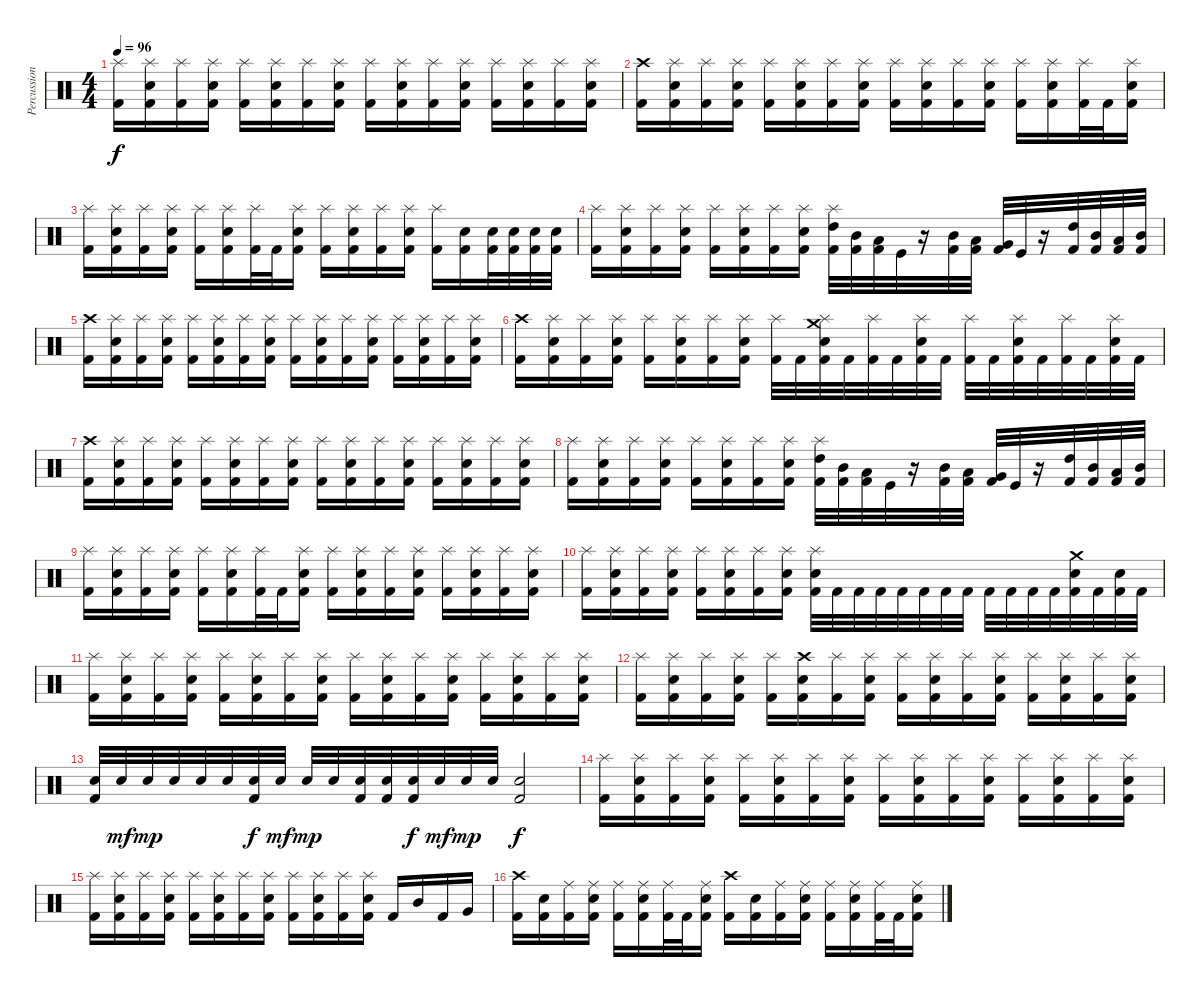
\track ("Percussion" "Percussion") {instrument percussion}
\staff {score}
\articulation defaults
\ts (4 4)
\tempo 96
\clef neutral
\ks c
("Splash (hit)" "Kick (hit) 2").16{dy f} ("Splash (hit)" "Snare (hit) 2" "Kick (hit) 2").16 ("Splash (hit)" "Kick (hit) 2").16 ("Splash (hit)" "Snare (hit) 2" "Kick (hit) 2").16 ("Splash (hit)" "Kick (hit) 2").16 ("Splash (hit)" "Snare (hit) 2" "Kick (hit) 2").16 ("Splash (hit)" "Kick (hit) 2").16 ("Splash (hit)" "Snare (hit) 2" "Kick (hit) 2").16 ("Splash (hit)" "Kick (hit) 2").16 ("Splash (hit)" "Snare (hit) 2" "Kick (hit) 2").16 ("Splash (hit)" "Kick (hit) 2").16 ("Splash (hit)" "Snare (hit) 2" "Kick (hit) 2").16 ("Splash (hit)" "Kick (hit) 2").16 ("Splash (hit)" "Snare (hit) 2" "Kick (hit) 2").16 ("Splash (hit)" "Kick (hit) 2").16 ("Splash (hit)" "Snare (hit) 2" "Kick (hit) 2").16 |
("Crash high (hit)" "Kick (hit) 2").16 ("Splash (hit)" "Snare (hit) 2" "Kick (hit) 2").16 ("Splash (hit)" "Kick (hit) 2").16 ("Splash (hit)" "Snare (hit) 2" "Kick (hit) 2").16 ("Splash (hit)" "Kick (hit) 2").16 ("Splash (hit)" "Snare (hit) 2" "Kick (hit) 2").16 ("Splash (hit)" "Kick (hit) 2").16 ("Splash (hit)" "Snare (hit) 2" "Kick (hit) 2").16 ("Splash (hit)" "Kick (hit) 2").16 ("Splash (hit)" "Snare (hit) 2" "Kick (hit) 2").16 ("Splash (hit)" "Kick (hit) 2").16 ("Splash (hit)" "Snare (hit) 2" "Kick (hit) 2").16 ("Splash (hit)" "Kick (hit) 2").16 ("Splash (hit)" "Snare (hit) 2" "Kick (hit) 2").16 ("Splash (hit)" "Kick (hit) 2").32 "Kick (hit) 2".32 ("Splash (hit)" "Snare (hit) 2" "Kick (hit) 2").16 |
("Splash (hit)" "Kick (hit) 2").16 ("Splash (hit)" "Snare (hit) 2" "Kick (hit) 2").16 ("Splash (hit)" "Kick (hit) 2").16 ("Splash (hit)" "Snare (hit) 2" "Kick (hit) 2").16 ("Splash (hit)" "Kick (hit) 2").16 ("Splash (hit)" "Snare (hit) 2" "Kick (hit) 2").16 ("Splash (hit)" "Kick (hit) 2").32 "Kick (hit) 2".32 ("Splash (hit)" "Snare (hit) 2" "Kick (hit) 2").16 ("Splash (hit)" "Kick (hit) 2").16 ("Splash (hit)" "Snare (hit) 2" "Kick (hit) 2").16 ("Splash (hit)" "Kick (hit) 2").16 ("Splash (hit)" "Snare (hit) 2" "Kick (hit) 2").16 ("Splash (hit)" "Kick (hit) 2").16 ("Snare (hit) 2" "Kick (hit) 2").16 ("Snare (hit) 2" "Kick (hit) 2").32 ("Snare (hit) 2" "Kick (hit) 2").32 ("Snare (hit) 2" "Kick (hit) 2").32 ("Snare (hit) 2" "Kick (hit) 2").32 |
("Splash (hit)" "Kick (hit) 2").16 ("Splash (hit)" "Snare (hit) 2" "Kick (hit) 2").16 ("Splash (hit)" "Kick (hit) 2").16 ("Splash (hit)" "Snare (hit) 2" "Kick (hit) 2").16 ("Splash (hit)" "Kick (hit) 2").16 ("Splash (hit)" "Snare (hit) 2" "Kick (hit) 2").16 ("Splash (hit)" "Kick (hit) 2").16 ("Splash (hit)" "Snare (hit) 2" "Kick (hit) 2").16 ("Splash (hit)" "High Tom (hit)" "Kick (hit) 2").32 ("Mid Tom (hit)" "Kick (hit) 2").32 ("Low Tom (hit)" "Kick (hit) 2").32 "Kick (hit)".32 r.16 ("Mid Tom (hit)" "Kick (hit) 2").32 ("Low Tom (hit)" "Kick (hit) 2").32 ("Very Low Tom (hit)" "Kick (hit) 2").32 "Kick (hit)".32 r.16 ("High Tom (hit)" "Kick (hit) 2").32 ("Mid Tom (hit)" "Kick (hit) 2").32 ("Low Tom (hit)" "Kick (hit) 2").32 ("Mid Tom (hit)" "Kick (hit) 2").32 |
("Crash high (hit)" "Kick (hit) 2").16 ("Splash (hit)" "Snare (hit) 2" "Kick (hit) 2").16 ("Splash (hit)" "Kick (hit) 2").16 ("Splash (hit)" "Snare (hit) 2" "Kick (hit) 2").16 ("Splash (hit)" "Kick (hit) 2").16 ("Splash (hit)" "Snare (hit) 2" "Kick (hit) 2").16 ("Splash (hit)" "Kick (hit) 2").16 ("Splash (hit)" "Snare (hit) 2" "Kick (hit) 2").16 ("Splash (hit)" "Kick (hit) 2").16 ("Splash (hit)" "Snare (hit) 2" "Kick (hit) 2").16 ("Splash (hit)" "Kick (hit) 2").16 ("Splash (hit)" "Snare (hit) 2" "Kick (hit) 2").16 ("Splash (hit)" "Kick (hit) 2").16 ("Splash (hit)" "Snare (hit) 2" "Kick (hit) 2").16 ("Splash (hit)" "Kick (hit) 2").16 ("Splash (hit)" "Snare (hit) 2" "Kick (hit) 2").16 |
("Crash high (hit)" "Kick (hit) 2").16 ("Splash (hit)" "Snare (hit) 2" "Kick (hit) 2").16 ("Splash (hit)" "Kick (hit) 2").16 ("Splash (hit)" "Snare (hit) 2" "Kick (hit) 2").16 ("Splash (hit)" "Kick (hit) 2").16 ("Splash (hit)" "Snare (hit) 2" "Kick (hit) 2").16 ("Splash (hit)" "Kick (hit) 2").16 ("Splash (hit)" "Snare (hit) 2" "Kick (hit) 2").16 ("Splash (hit)" "Kick (hit) 2").32 "Kick (hit) 2".32 ("Crash medium (hit)" "Splash (hit)" "Snare (hit) 2" "Kick (hit) 2").32 "Kick (hit) 2".32 ("Splash (hit)" "Kick (hit) 2").32 "Kick (hit) 2".32 ("Splash (hit)" "Snare (hit) 2" "Kick (hit) 2").32 "Kick (hit) 2".32 ("Splash (hit)" "Kick (hit) 2").32 "Kick (hit) 2".32 ("Splash (hit)" "Snare (hit) 2" "Kick (hit) 2").32 "Kick (hit) 2".32 ("Splash (hit)" "Kick (hit) 2").32 "Kick (hit) 2".32 ("Splash (hit)" "Snare (hit) 2" "Kick (hit) 2").32 "Kick (hit) 2".32 |
("Crash high (hit)" "Kick (hit) 2").16 ("Splash (hit)" "Snare (hit) 2" "Kick (hit) 2").16 ("Splash (hit)" "Kick (hit) 2").16 ("Splash (hit)" "Snare (hit) 2" "Kick (hit) 2").16 ("Splash (hit)" "Kick (hit) 2").16 ("Splash (hit)" "Snare (hit) 2" "Kick (hit) 2").16 ("Splash (hit)" "Kick (hit) 2").16 ("Splash (hit)" "Snare (hit) 2" "Kick (hit) 2").16 ("Splash (hit)" "Kick (hit) 2").16 ("Splash (hit)" "Snare (hit) 2" "Kick (hit) 2").16 ("Splash (hit)" "Kick (hit) 2").16 ("Splash (hit)" "Snare (hit) 2" "Kick (hit) 2").16 ("Splash (hit)" "Kick (hit) 2").16 ("Splash (hit)" "Snare (hit) 2" "Kick (hit) 2").16 ("Splash (hit)" "Kick (hit) 2").16 ("Splash (hit)" "Snare (hit) 2" "Kick (hit) 2").16 |
("Splash (hit)" "Kick (hit) 2").16 ("Splash (hit)" "Snare (hit) 2" "Kick (hit) 2").16 ("Splash (hit)" "Kick (hit) 2").16 ("Splash (hit)" "Snare (hit) 2" "Kick (hit) 2").16 ("Splash (hit)" "Kick (hit) 2").16 ("Splash (hit)" "Snare (hit) 2" "Kick (hit) 2").16 ("Splash (hit)" "Kick (hit) 2").16 ("Splash (hit)" "Snare (hit) 2" "Kick (hit) 2").16 ("Splash (hit)" "High Tom (hit)" "Kick (hit) 2").32 ("Mid Tom (hit)" "Kick (hit) 2").32 ("Low Tom (hit)" "Kick (hit) 2").32 "Kick (hit)".32 r.16 ("Mid Tom (hit)" "Kick (hit) 2").32 ("Low Tom (hit)" "Kick (hit) 2").32 ("Very Low Tom (hit)" "Kick (hit) 2").32 "Kick (hit)".32 r.16 ("High Tom (hit)" "Kick (hit) 2").32 ("Mid Tom (hit)" "Kick (hit) 2").32 ("Low Tom (hit)" "Kick (hit) 2").32 ("Mid Tom (hit)" "Kick (hit) 2").32 |
("Splash (hit)" "Kick (hit) 2").16 ("Splash (hit)" "Snare (hit) 2" "Kick (hit) 2").16 ("Splash (hit)" "Kick (hit) 2").16 ("Splash (hit)" "Snare (hit) 2" "Kick (hit) 2").16 ("Splash (hit)" "Kick (hit) 2").16 ("Splash (hit)" "Snare (hit) 2" "Kick (hit) 2").16 ("Splash (hit)" "Kick (hit) 2").32 "Kick (hit) 2".32 ("Splash (hit)" "Snare (hit) 2" "Kick (hit) 2").16 ("Splash (hit)" "Kick (hit) 2").16 ("Splash (hit)" "Snare (hit) 2" "Kick (hit) 2").16 ("Splash (hit)" "Kick (hit) 2").16 ("Splash (hit)" "Snare (hit) 2" "Kick (hit) 2").16 ("Splash (hit)" "Kick (hit) 2").16 ("Splash (hit)" "Snare (hit) 2" "Kick (hit) 2").16 ("Splash (hit)" "Kick (hit) 2").16 ("Splash (hit)" "Snare (hit) 2" "Kick (hit) 2").16 |
("Splash (hit)" "Kick (hit) 2").16 ("Splash (hit)" "Snare (hit) 2" "Kick (hit) 2").16 ("Splash (hit)" "Kick (hit) 2").16 ("Splash (hit)" "Snare (hit) 2" "Kick (hit) 2").16 ("Splash (hit)" "Kick (hit) 2").16 ("Splash (hit)" "Snare (hit) 2" "Kick (hit) 2").16 ("Splash (hit)" "Kick (hit) 2").16 ("Splash (hit)" "Snare (hit) 2" "Kick (hit) 2").16 ("Splash (hit)" "Snare (hit) 2" "Kick (hit) 2").32 "Kick (hit) 2".32 "Kick (hit) 2".32 "Kick (hit) 2".32 "Kick (hit) 2".32 "Kick (hit) 2".32 "Kick (hit) 2".32 "Kick (hit) 2".32 "Kick (hit) 2".32 "Kick (hit) 2".32 "Kick (hit) 2".32 "Kick (hit) 2".32 ("Crash medium (hit)" "Snare (hit) 2" "Kick (hit) 2").32 "Kick (hit) 2".32 ("Snare (hit) 2" "Kick (hit) 2").32 "Kick (hit) 2".32 |
("Splash (hit)" "Kick (hit) 2").16 ("Splash (hit)" "Snare (hit) 2" "Kick (hit) 2").16 ("Splash (hit)" "Kick (hit) 2").16 ("Splash (hit)" "Snare (hit) 2" "Kick (hit) 2").16 ("Splash (hit)" "Kick (hit) 2").16 ("Splash (hit)" "Snare (hit) 2" "Kick (hit) 2").16 ("Splash (hit)" "Kick (hit) 2").16 ("Splash (hit)" "Snare (hit) 2" "Kick (hit) 2").16 ("Splash (hit)" "Kick (hit) 2").16 ("Splash (hit)" "Snare (hit) 2" "Kick (hit) 2").16 ("Splash (hit)" "Kick (hit) 2").16 ("Splash (hit)" "Snare (hit) 2" "Kick (hit) 2").16 ("Splash (hit)" "Kick (hit) 2").16 ("Splash (hit)" "Snare (hit) 2" "Kick (hit) 2").16 ("Splash (hit)" "Kick (hit) 2").16 ("Splash (hit)" "Snare (hit) 2" "Kick (hit) 2").16 |
("Splash (hit)" "Kick (hit) 2").16 ("Splash (hit)" "Snare (hit) 2" "Kick (hit) 2").16 ("Splash (hit)" "Kick (hit) 2").16 ("Splash (hit)" "Snare (hit) 2" "Kick (hit) 2").16 ("Splash (hit)" "Kick (hit) 2").16 ("Crash high (hit)" "Snare (hit) 2" "Kick (hit) 2").16 ("Splash (hit)" "Kick (hit) 2").16 ("Splash (hit)" "Snare (hit) 2" "Kick (hit) 2").16 ("Splash (hit)" "Kick (hit) 2").16 ("Splash (hit)" "Snare (hit) 2" "Kick (hit) 2").16 ("Splash (hit)" "Kick (hit) 2").16 ("Splash (hit)" "Snare (hit) 2" "Kick (hit) 2").16 ("Splash (hit)" "Kick (hit) 2").16 ("Splash (hit)" "Snare (hit) 2" "Kick (hit) 2").16 ("Splash (hit)" "Kick (hit) 2").16 ("Splash (hit)" "Snare (hit) 2" "Kick (hit) 2").16 |
("Snare (hit) 2" "Kick (hit) 2").32 "Snare (hit) 2".32{dy mf} "Snare (hit) 2".32{dy mp} "Snare (hit) 2".32 "Snare (hit) 2".32 "Snare (hit) 2".32 ("Snare (hit) 2" "Kick (hit) 2").32{dy f} "Snare (hit) 2".32{dy mf} "Snare (hit) 2".32{dy mp} "Snare (hit) 2".32 ("Snare (hit) 2" "Kick (hit) 2").32 ("Snare (hit) 2" "Kick (hit) 2").32 ("Snare (hit) 2" "Kick (hit) 2").32{dy f} "Snare (hit) 2".32{dy mf} "Snare (hit) 2".32{dy mp} "Snare (hit) 2".32 ("Snare (hit) 2" "Kick (hit) 2").2{dy f} |
("Splash (hit)" "Kick (hit) 2").16 ("Splash (hit)" "Snare (hit) 2" "Kick (hit) 2").16 ("Splash (hit)" "Kick (hit) 2").16 ("Splash (hit)" "Snare (hit) 2" "Kick (hit) 2").16 ("Splash (hit)" "Kick (hit) 2").16 ("Splash (hit)" "Snare (hit) 2" "Kick (hit) 2").16 ("Splash (hit)" "Kick (hit) 2").16 ("Splash (hit)" "Snare (hit) 2" "Kick (hit) 2").16 ("Splash (hit)" "Kick (hit) 2").16 ("Splash (hit)" "Snare (hit) 2" "Kick (hit) 2").16 ("Splash (hit)" "Kick (hit) 2").16 ("Splash (hit)" "Snare (hit) 2" "Kick (hit) 2").16 ("Splash (hit)" "Kick (hit) 2").16 ("Splash (hit)" "Snare (hit) 2" "Kick (hit) 2").16 ("Splash (hit)" "Kick (hit) 2").16 ("Splash (hit)" "Snare (hit) 2" "Kick (hit) 2").16 |
("Splash (hit)" "Kick (hit) 2").16 ("Splash (hit)" "Snare (hit) 2" "Kick (hit) 2").16 ("Splash (hit)" "Kick (hit) 2").16 ("Splash (hit)" "Snare (hit) 2" "Kick (hit) 2").16 ("Splash (hit)" "Kick (hit) 2").16 ("Splash (hit)" "Snare (hit) 2" "Kick (hit) 2").16 ("Splash (hit)" "Kick (hit) 2").16 ("Splash (hit)" "Snare (hit) 2" "Kick (hit) 2").16 ("Splash (hit)" "Kick (hit) 2").16 ("Splash (hit)" "Snare (hit) 2" "Kick (hit) 2").16 ("Splash (hit)" "Kick (hit) 2").16 ("Splash (hit)" "Snare (hit) 2" "Kick (hit) 2").16 "Kick (hit) 2".16 "Mid Tom (hit)".16 "Kick (hit) 2".16 "Very Low Tom (hit)".16 |
("Crash high (hit)" "Kick (hit) 2").16 ("Snare (hit) 2" "Kick (hit) 2").16 ("Ride (middle)" "Kick (hit) 2").16 ("Ride (middle)" "Snare (hit) 2" "Kick (hit) 2").16 ("Ride (middle)" "Kick (hit) 2").16 ("Ride (middle)" "Snare (hit) 2" "Kick (hit) 2").16 ("Ride (middle)" "Kick (hit) 2").32 "Kick (hit) 2".32 ("Ride (middle)" "Snare (hit) 2" "Kick (hit) 2").16 ("Crash high (hit)" "Kick (hit) 2").16 ("Snare (hit) 2" "Kick (hit) 2").16 ("Ride (middle)" "Kick (hit) 2").16 ("Ride (middle)" "Snare (hit) 2" "Kick (hit) 2").16 ("Ride (middle)" "Kick (hit) 2").16 ("Ride (middle)" "Snare (hit) 2" "Kick (hit) 2").16 ("Ride (middle)" "Kick (hit) 2").32 "Kick (hit) 2".32 ("Ride (middle)" "Snare (hit) 2" "Kick (hit) 2").16
